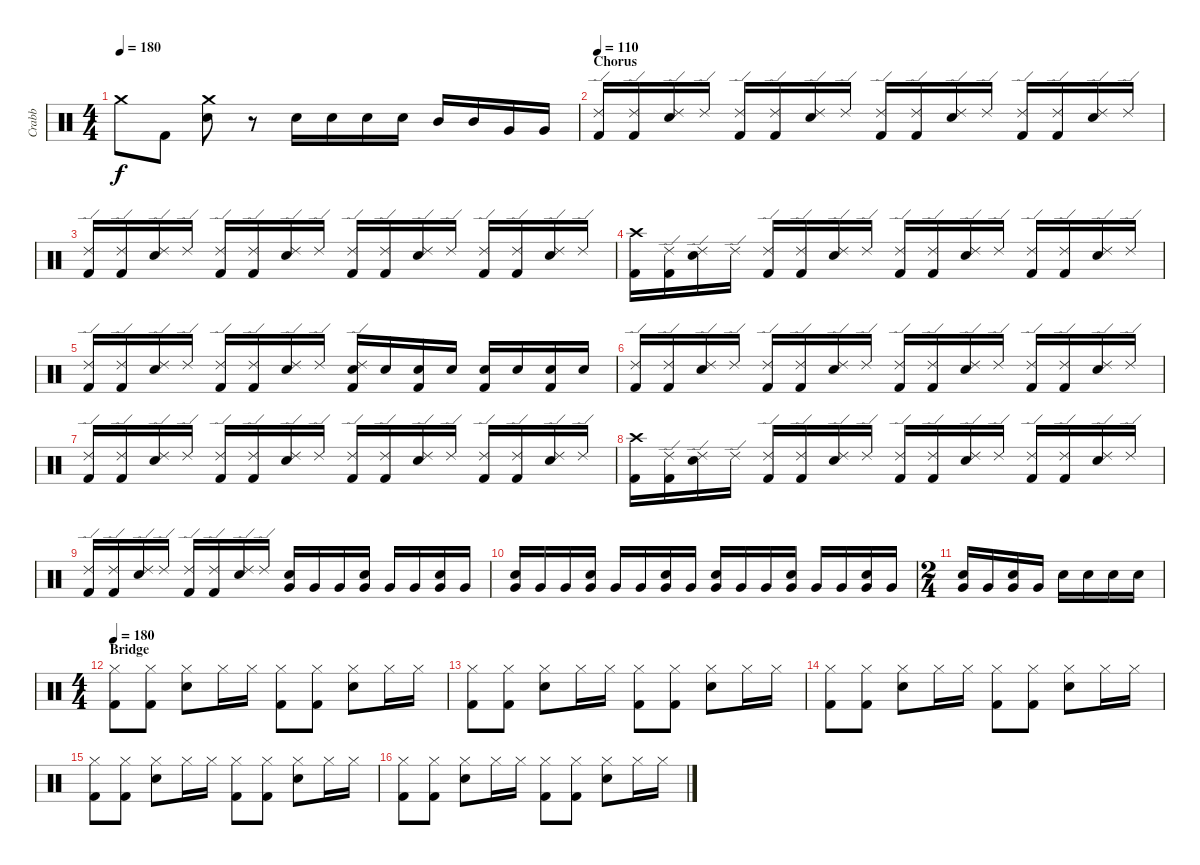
\track ("Crabb" "Crabb") {instrument percussion}
\staff {score}
\articulation defaults
\ts (4 4)
\tempo 180
\clef neutral
\ks c "Crash medium (hit)".8{dy f} "Kick (hit) 2".8
("Crash medium (hit)" "Electric Snare (hit)").8 r.8 "Electric Snare (hit)".16 "Electric Snare (hit)".16 "Electric Snare (hit)".16 "Electric Snare (hit)".16 "Mid Tom (hit)".16 "Mid Tom (hit)".16 "Very Low Tom (hit)".16 "Very Low Tom (hit)".16 |
\section ("" "Chorus")
\tempo 110
("Ride (edge) 2" "Kick (hit) 2").16 ("Ride (edge) 2" "Kick (hit) 2").16 ("Ride (edge) 2" "Electric Snare (hit)").16 "Ride (edge) 2".16 ("Ride (edge) 2" "Kick (hit) 2").16 ("Ride (edge) 2" "Kick (hit) 2").16 ("Ride (edge) 2" "Electric Snare (hit)").16 "Ride (edge) 2".16 ("Ride (edge) 2" "Kick (hit) 2").16 ("Ride (edge) 2" "Kick (hit) 2").16 ("Ride (edge) 2" "Electric Snare (hit)").16 "Ride (edge) 2".16 ("Ride (edge) 2" "Kick (hit) 2").16 ("Ride (edge) 2" "Kick (hit) 2").16 ("Ride (edge) 2" "Electric Snare (hit)").16 "Ride (edge) 2".16 |
("Ride (edge) 2" "Kick (hit) 2").16 ("Ride (edge) 2" "Kick (hit) 2").16 ("Ride (edge) 2" "Electric Snare (hit)").16 "Ride (edge) 2".16 ("Ride (edge) 2" "Kick (hit) 2").16 ("Ride (edge) 2" "Kick (hit) 2").16 ("Ride (edge) 2" "Electric Snare (hit)").16 "Ride (edge) 2".16 ("Ride (edge) 2" "Kick (hit) 2").16 ("Ride (edge) 2" "Kick (hit) 2").16 ("Ride (edge) 2" "Electric Snare (hit)").16 "Ride (edge) 2".16 ("Ride (edge) 2" "Kick (hit) 2").16 ("Ride (edge) 2" "Kick (hit) 2").16 ("Ride (edge) 2" "Electric Snare (hit)").16 "Ride (edge) 2".16 |
("Crash high (hit)" "Kick (hit) 2").16 ("Ride (edge) 2" "Kick (hit) 2").16 ("Ride (edge) 2" "Electric Snare (hit)").16 "Ride (edge) 2".16 ("Ride (edge) 2" "Kick (hit) 2").16 ("Ride (edge) 2" "Kick (hit) 2").16 ("Ride (edge) 2" "Electric Snare (hit)").16 "Ride (edge) 2".16 ("Ride (edge) 2" "Kick (hit) 2").16 ("Ride (edge) 2" "Kick (hit) 2").16 ("Ride (edge) 2" "Electric Snare (hit)").16 "Ride (edge) 2".16 ("Ride (edge) 2" "Kick (hit) 2").16 ("Ride (edge) 2" "Kick (hit) 2").16 ("Ride (edge) 2" "Electric Snare (hit)").16 "Ride (edge) 2".16 |
("Ride (edge) 2" "Kick (hit) 2").16 ("Ride (edge) 2" "Kick (hit) 2").16 ("Ride (edge) 2" "Electric Snare (hit)").16 "Ride (edge) 2".16 ("Ride (edge) 2" "Kick (hit) 2").16 ("Ride (edge) 2" "Kick (hit) 2").16 ("Ride (edge) 2" "Electric Snare (hit)").16 "Ride (edge) 2".16 ("Ride (edge) 2" "Electric Snare (hit)" "Kick (hit) 2").16 "Electric Snare (hit)".16 ("Electric Snare (hit)" "Kick (hit) 2").16 "Electric Snare (hit)".16 ("Electric Snare (hit)" "Kick (hit) 2").16 "Electric Snare (hit)".16 ("Electric Snare (hit)" "Kick (hit) 2").16 "Electric Snare (hit)".16 |
("Ride (edge) 2" "Kick (hit) 2").16 ("Ride (edge) 2" "Kick (hit) 2").16 ("Ride (edge) 2" "Electric Snare (hit)").16 "Ride (edge) 2".16 ("Ride (edge) 2" "Kick (hit) 2").16 ("Ride (edge) 2" "Kick (hit) 2").16 ("Ride (edge) 2" "Electric Snare (hit)").16 "Ride (edge) 2".16 ("Ride (edge) 2" "Kick (hit) 2").16 ("Ride (edge) 2" "Kick (hit) 2").16 ("Ride (edge) 2" "Electric Snare (hit)").16 "Ride (edge) 2".16 ("Ride (edge) 2" "Kick (hit) 2").16 ("Ride (edge) 2" "Kick (hit) 2").16 ("Ride (edge) 2" "Electric Snare (hit)").16 "Ride (edge) 2".16 |
("Ride (edge) 2" "Kick (hit) 2").16 ("Ride (edge) 2" "Kick (hit) 2").16 ("Ride (edge) 2" "Electric Snare (hit)").16 "Ride (edge) 2".16 ("Ride (edge) 2" "Kick (hit) 2").16 ("Ride (edge) 2" "Kick (hit) 2").16 ("Ride (edge) 2" "Electric Snare (hit)").16 "Ride (edge) 2".16 ("Ride (edge) 2" "Kick (hit) 2").16 ("Ride (edge) 2" "Kick (hit) 2").16 ("Ride (edge) 2" "Electric Snare (hit)").16 "Ride (edge) 2".16 ("Ride (edge) 2" "Kick (hit) 2").16 ("Ride (edge) 2" "Kick (hit) 2").16 ("Ride (edge) 2" "Electric Snare (hit)").16 "Ride (edge) 2".16 |
("Crash high (hit)" "Kick (hit) 2").16 ("Ride (edge) 2" "Kick (hit) 2").16 ("Ride (edge) 2" "Electric Snare (hit)").16 "Ride (edge) 2".16 ("Ride (edge) 2" "Kick (hit) 2").16 ("Ride (edge) 2" "Kick (hit) 2").16 ("Ride (edge) 2" "Electric Snare (hit)").16 "Ride (edge) 2".16 ("Ride (edge) 2" "Kick (hit) 2").16 ("Ride (edge) 2" "Kick (hit) 2").16 ("Ride (edge) 2" "Electric Snare (hit)").16 "Ride (edge) 2".16 ("Ride (edge) 2" "Kick (hit) 2").16 ("Ride (edge) 2" "Kick (hit) 2").16 ("Ride (edge) 2" "Electric Snare (hit)").16 "Ride (edge) 2".16 |
("Ride (edge) 2" "Kick (hit) 2").16 ("Ride (edge) 2" "Kick (hit) 2").16 ("Ride (edge) 2" "Electric Snare (hit)").16 "Ride (edge) 2".16 ("Ride (edge) 2" "Kick (hit) 2").16 ("Ride (edge) 2" "Kick (hit) 2").16 ("Ride (edge) 2" "Electric Snare (hit)").16 "Ride (edge) 2".16 ("Electric Snare (hit)" "Very Low Tom (hit)").16 "Very Low Tom (hit)".16 "Very Low Tom (hit)".16 ("Electric Snare (hit)" "Very Low Tom (hit)").16 "Very Low Tom (hit)".16 "Very Low Tom (hit)".16 ("Electric Snare (hit)" "Very Low Tom (hit)").16 "Very Low Tom (hit)".16 |
("Electric Snare (hit)" "Very Low Tom (hit)").16 "Very Low Tom (hit)".16 "Very Low Tom (hit)".16 ("Electric Snare (hit)" "Very Low Tom (hit)").16 "Very Low Tom (hit)".16 "Very Low Tom (hit)".16 ("Electric Snare (hit)" "Very Low Tom (hit)").16 "Very Low Tom (hit)".16 ("Electric Snare (hit)" "Very Low Tom (hit)").16 "Very Low Tom (hit)".16 "Very Low Tom (hit)".16 ("Electric Snare (hit)" "Very Low Tom (hit)").16 "Very Low Tom (hit)".16 "Very Low Tom (hit)".16 ("Electric Snare (hit)" "Very Low Tom (hit)").16 "Very Low Tom (hit)".16 |
\ts (2 4)
("Electric Snare (hit)" "Very Low Tom (hit)").16 "Very Low Tom (hit)".16 ("Electric Snare (hit)" "Very Low Tom (hit)").16 "Very Low Tom (hit)".16 "Electric Snare (hit)".16 "Electric Snare (hit)".16 "Electric Snare (hit)".16 "Electric Snare (hit)".16 |
\ts (4 4)
\section ("" "Bridge")
\tempo 180
("Hi-Hat (closed)" "Kick (hit) 2").8 ("Hi-Hat (closed)" "Kick (hit) 2").8 ("Hi-Hat (closed)" "Electric Snare (hit)").8 "Hi-Hat (closed)".16 "Hi-Hat (closed)".16 ("Hi-Hat (closed)" "Kick (hit) 2").8 ("Hi-Hat (closed)" "Kick (hit) 2").8 ("Hi-Hat (closed)" "Electric Snare (hit)").8 "Hi-Hat (closed)".16 "Hi-Hat (closed)".16 |
("Hi-Hat (closed)" "Kick (hit) 2").8 ("Hi-Hat (closed)" "Kick (hit) 2").8 ("Hi-Hat (closed)" "Electric Snare (hit)").8 "Hi-Hat (closed)".16 "Hi-Hat (closed)".16 ("Hi-Hat (closed)" "Kick (hit) 2").8 ("Hi-Hat (closed)" "Kick (hit) 2").8 ("Hi-Hat (closed)" "Electric Snare (hit)").8 "Hi-Hat (closed)".16 "Hi-Hat (closed)".16 |
("Hi-Hat (closed)" "Kick (hit) 2").8 ("Hi-Hat (closed)" "Kick (hit) 2").8 ("Hi-Hat (closed)" "Electric Snare (hit)").8 "Hi-Hat (closed)".16 "Hi-Hat (closed)".16 ("Hi-Hat (closed)" "Kick (hit) 2").8 ("Hi-Hat (closed)" "Kick (hit) 2").8 ("Hi-Hat (closed)" "Electric Snare (hit)").8 "Hi-Hat (closed)".16 "Hi-Hat (closed)".16 |
("Hi-Hat (closed)" "Kick (hit) 2").8 ("Hi-Hat (closed)" "Kick (hit) 2").8 ("Hi-Hat (closed)" "Electric Snare (hit)").8 "Hi-Hat (closed)".16 "Hi-Hat (closed)".16 ("Hi-Hat (closed)" "Kick (hit) 2").8 ("Hi-Hat (closed)" "Kick (hit) 2").8 ("Hi-Hat (closed)" "Electric Snare (hit)").8 "Hi-Hat (closed)".16 "Hi-Hat (closed)".16 |
("Hi-Hat (closed)" "Kick (hit) 2").8 ("Hi-Hat (closed)" "Kick (hit) 2").8 ("Hi-Hat (closed)" "Electric Snare (hit)").8 "Hi-Hat (closed)".16 "Hi-Hat (closed)".16 ("Hi-Hat (closed)" "Kick (hit) 2").8 ("Hi-Hat (closed)" "Kick (hit) 2").8 ("Hi-Hat (closed)" "Electric Snare (hit)").8 "Hi-Hat (closed)".16 "Hi-Hat (closed)".16
